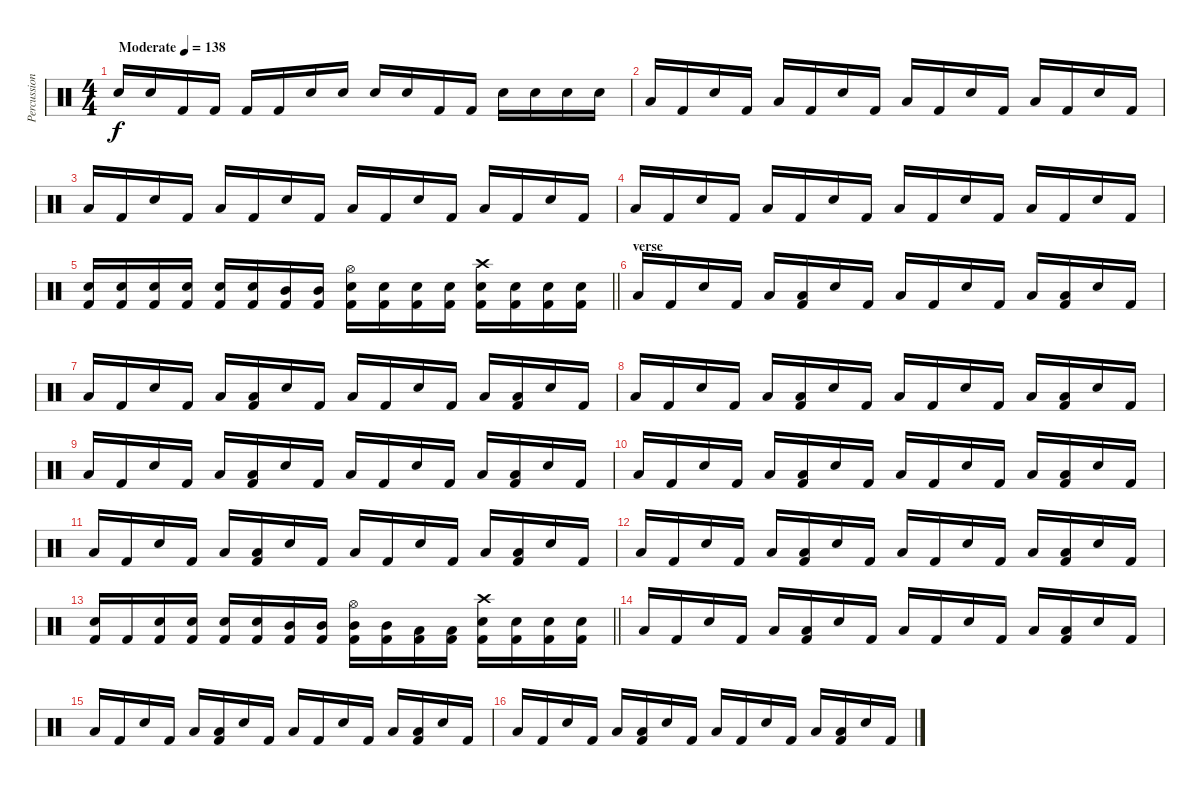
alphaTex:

\track ("Percussion" "Percussion") {instrument percussion}
\staff {score}
\articulation defaults
\ts (4 4)
\tempo (138 "Moderate")
\clef neutral
\ks c "Snare (hit) 2".16{dy f} "Snare (hit) 2".16 "Kick (hit) 2".16 "Kick (hit) 2".16 "Kick (hit) 2".16 "Kick (hit) 2".16 "Snare (hit) 2".16 "Snare (hit) 2".16 "Snare (hit) 2".16 "Snare (hit) 2".16 "Kick (hit) 2".16 "Kick (hit) 2".16 "Snare (hit) 2".16 "Snare (hit) 2".16 "Snare (hit) 2".16 "Snare (hit) 2".16
|
"Low Tom (hit)".16 "Kick (hit) 2".16 "Snare (hit) 2".16 "Kick (hit) 2".16 "Low Tom (hit)".16 "Kick (hit) 2".16 "Snare (hit) 2".16 "Kick (hit) 2".16 "Low Tom (hit)".16 "Kick (hit) 2".16 "Snare (hit) 2".16 "Kick (hit) 2".16 "Low Tom (hit)".16 "Kick (hit) 2".16 "Snare (hit) 2".16 "Kick (hit) 2".16 |
"Low Tom (hit)".16 "Kick (hit) 2".16 "Snare (hit) 2".16 "Kick (hit) 2".16 "Low Tom (hit)".16 "Kick (hit) 2".16 "Snare (hit) 2".16 "Kick (hit) 2".16 "Low Tom (hit)".16 "Kick (hit) 2".16 "Snare (hit) 2".16 "Kick (hit) 2".16 "Low Tom (hit)".16 "Kick (hit) 2".16 "Snare (hit) 2".16 "Kick (hit) 2".16 |
"Low Tom (hit)".16 "Kick (hit) 2".16 "Snare (hit) 2".16 "Kick (hit) 2".16 "Low Tom (hit)".16 "Kick (hit) 2".16 "Snare (hit) 2".16 "Kick (hit) 2".16 "Low Tom (hit)".16 "Kick (hit) 2".16 "Snare (hit) 2".16 "Kick (hit) 2".16 "Low Tom (hit)".16 "Kick (hit) 2".16 "Snare (hit) 2".16 "Kick (hit) 2".16 |
\barLineRight lightlight
("Snare (hit) 2" "Kick (hit) 2").16 ("Snare (hit) 2" "Kick (hit) 2").16 ("Snare (hit) 2" "Kick (hit) 2").16 ("Snare (hit) 2" "Kick (hit) 2").16 ("Snare (hit) 2" "Kick (hit) 2").16 ("Snare (hit) 2" "Kick (hit) 2").16 ("Mid Tom (hit)" "Kick (hit) 2").16 ("Mid Tom (hit)" "Kick (hit) 2").16 ("Hi-Hat (open)" "Snare (hit) 2" "Kick (hit) 2").16 ("Snare (hit) 2" "Kick (hit) 2").16 ("Snare (hit) 2" "Kick (hit) 2").16 ("Snare (hit) 2" "Kick (hit) 2").16 ("Crash high (hit)" "Snare (hit) 2" "Kick (hit) 2").16 ("Snare (hit) 2" "Kick (hit) 2").16 ("Snare (hit) 2" "Kick (hit) 2").16 ("Snare (hit) 2" "Kick (hit) 2").16 |
\section ("" "verse")
"Low Tom (hit)".16 "Kick (hit) 2".16 "Snare (hit) 2".16 "Kick (hit) 2".16 "Low Tom (hit)".16 ("Low Tom (hit)" "Kick (hit) 2").16 "Snare (hit) 2".16 "Kick (hit) 2".16 "Low Tom (hit)".16 "Kick (hit) 2".16 "Snare (hit) 2".16 "Kick (hit) 2".16 "Low Tom (hit)".16 ("Low Tom (hit)" "Kick (hit) 2").16 "Snare (hit) 2".16 "Kick (hit) 2".16 |
"Low Tom (hit)".16 "Kick (hit) 2".16 "Snare (hit) 2".16 "Kick (hit) 2".16 "Low Tom (hit)".16 ("Low Tom (hit)" "Kick (hit) 2").16 "Snare (hit) 2".16 "Kick (hit) 2".16 "Low Tom (hit)".16 "Kick (hit) 2".16 "Snare (hit) 2".16 "Kick (hit) 2".16 "Low Tom (hit)".16 ("Low Tom (hit)" "Kick (hit) 2").16 "Snare (hit) 2".16 "Kick (hit) 2".16 |
"Low Tom (hit)".16 "Kick (hit) 2".16 "Snare (hit) 2".16 "Kick (hit) 2".16 "Low Tom (hit)".16 ("Low Tom (hit)" "Kick (hit) 2").16 "Snare (hit) 2".16 "Kick (hit) 2".16 "Low Tom (hit)".16 "Kick (hit) 2".16 "Snare (hit) 2".16 "Kick (hit) 2".16 "Low Tom (hit)".16 ("Low Tom (hit)" "Kick (hit) 2").16 "Snare (hit) 2".16 "Kick (hit) 2".16 |
"Low Tom (hit)".16 "Kick (hit) 2".16 "Snare (hit) 2".16 "Kick (hit) 2".16 "Low Tom (hit)".16 ("Low Tom (hit)" "Kick (hit) 2").16 "Snare (hit) 2".16 "Kick (hit) 2".16 "Low Tom (hit)".16 "Kick (hit) 2".16 "Snare (hit) 2".16 "Kick (hit) 2".16 "Low Tom (hit)".16 ("Low Tom (hit)" "Kick (hit) 2").16 "Snare (hit) 2".16 "Kick (hit) 2".16 |
"Low Tom (hit)".16 "Kick (hit) 2".16 "Snare (hit) 2".16 "Kick (hit) 2".16 "Low Tom (hit)".16 ("Low Tom (hit)" "Kick (hit) 2").16 "Snare (hit) 2".16 "Kick (hit) 2".16 "Low Tom (hit)".16 "Kick (hit) 2".16 "Snare (hit) 2".16 "Kick (hit) 2".16 "Low Tom (hit)".16 ("Low Tom (hit)" "Kick (hit) 2").16 "Snare (hit) 2".16 "Kick (hit) 2".16 |
"Low Tom (hit)".16 "Kick (hit) 2".16 "Snare (hit) 2".16 "Kick (hit) 2".16 "Low Tom (hit)".16 ("Low Tom (hit)" "Kick (hit) 2").16 "Snare (hit) 2".16 "Kick (hit) 2".16 "Low Tom (hit)".16 "Kick (hit) 2".16 "Snare (hit) 2".16 "Kick (hit) 2".16 "Low Tom (hit)".16 ("Low Tom (hit)" "Kick (hit) 2").16 "Snare (hit) 2".16 "Kick (hit) 2".16 |
"Low Tom (hit)".16 "Kick (hit) 2".16 "Snare (hit) 2".16 "Kick (hit) 2".16 "Low Tom (hit)".16 ("Low Tom (hit)" "Kick (hit) 2").16 "Snare (hit) 2".16 "Kick (hit) 2".16 "Low Tom (hit)".16 "Kick (hit) 2".16 "Snare (hit) 2".16 "Kick (hit) 2".16 "Low Tom (hit)".16 ("Low Tom (hit)" "Kick (hit) 2").16 "Snare (hit) 2".16 "Kick (hit) 2".16 |
\barLineRight lightlight
("Snare (hit) 2" "Kick (hit) 2").16 "Kick (hit) 2".16 ("Snare (hit) 2" "Kick (hit) 2").16 ("Snare (hit) 2" "Kick (hit) 2").16 ("Snare (hit) 2" "Kick (hit) 2").16 ("Snare (hit) 2" "Kick (hit) 2").16 ("Mid Tom (hit)" "Kick (hit) 2").16 ("Mid Tom (hit)" "Kick (hit) 2").16 ("Hi-Hat (open)" "Mid Tom (hit)" "Kick (hit) 2").16 ("Mid Tom (hit)" "Kick (hit) 2").16 ("Low Tom (hit)" "Kick (hit) 2").16 ("Low Tom (hit)" "Kick (hit) 2").16 ("Crash high (hit)" "Snare (hit) 2" "Kick (hit) 2").16 ("Snare (hit) 2" "Kick (hit) 2").16 ("Snare (hit) 2" "Kick (hit) 2").16 ("Snare (hit) 2" "Kick (hit) 2").16 |
"Low Tom (hit)".16 "Kick (hit) 2".16 "Snare (hit) 2".16 "Kick (hit) 2".16 "Low Tom (hit)".16 ("Low Tom (hit)" "Kick (hit) 2").16 "Snare (hit) 2".16 "Kick (hit) 2".16 "Low Tom (hit)".16 "Kick (hit) 2".16 "Snare (hit) 2".16 "Kick (hit) 2".16 "Low Tom (hit)".16 ("Low Tom (hit)" "Kick (hit) 2").16 "Snare (hit) 2".16 "Kick (hit) 2".16 |
"Low Tom (hit)".16 "Kick (hit) 2".16 "Snare (hit) 2".16 "Kick (hit) 2".16 "Low Tom (hit)".16 ("Low Tom (hit)" "Kick (hit) 2").16 "Snare (hit) 2".16 "Kick (hit) 2".16 "Low Tom (hit)".16 "Kick (hit) 2".16 "Snare (hit) 2".16 "Kick (hit) 2".16 "Low Tom (hit)".16 ("Low Tom (hit)" "Kick (hit) 2").16 "Snare (hit) 2".16 "Kick (hit) 2".16 |
"Low Tom (hit)".16 "Kick (hit) 2".16 "Snare (hit) 2".16 "Kick (hit) 2".16 "Low Tom (hit)".16 ("Low Tom (hit)" "Kick (hit) 2").16 "Snare (hit) 2".16 "Kick (hit) 2".16 "Low Tom (hit)".16 "Kick (hit) 2".16 "Snare (hit) 2".16 "Kick (hit) 2".16 "Low Tom (hit)".16 ("Low Tom (hit)" "Kick (hit) 2").16 "Snare (hit) 2".16 "Kick (hit) 2".16
